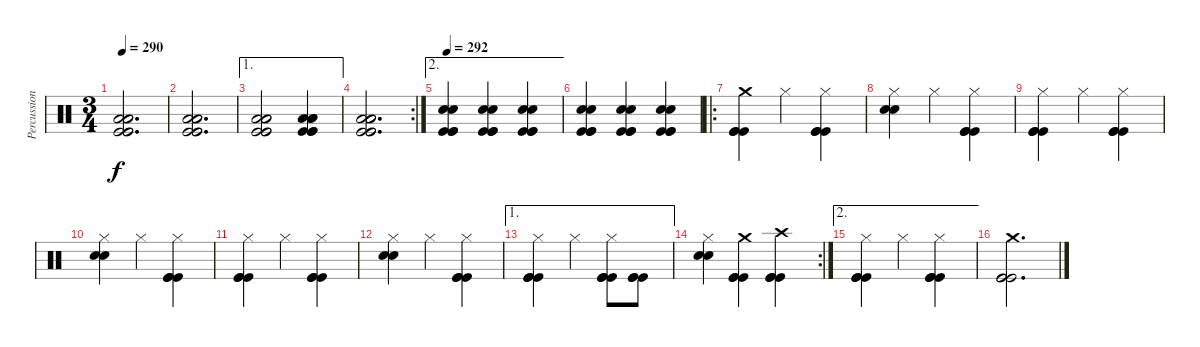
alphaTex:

\track ("Percussion" "Percussion") {instrument percussion}
\staff {score}
\articulation defaults
\ts (3 4)
\tempo 290
\clef neutral
\ks c
("Low Floor Tom (hit)" "Low Floor Tom (hit)" "Low Floor Tom (hit)" "Kick (hit)" "Kick (hit)" "Kick (hit)").2{d dy f} |
("Low Floor Tom (hit)" "Low Floor Tom (hit)" "Low Floor Tom (hit)" "Kick (hit)" "Kick (hit)" "Kick (hit)").2{d} |
\ae 1
("Low Floor Tom (hit)" "Low Floor Tom (hit)" "Low Floor Tom (hit)" "Kick (hit)" "Kick (hit)" "Kick (hit)").2 ("Low Floor Tom (hit)" "Low Floor Tom (hit)" "Low Floor Tom (hit)" "Kick (hit)" "Kick (hit)" "Kick (hit)").4 |
\rc 2
("Low Floor Tom (hit)" "Low Floor Tom (hit)" "Low Floor Tom (hit)" "Kick (hit)" "Kick (hit)" "Kick (hit)").2{d} |
\ae 2
\tempo 292
("Electric Snare (hit)" "Snare (hit) 2" "Kick (hit)" "Kick (hit)" "Kick (hit)").4 ("Electric Snare (hit)" "Snare (hit) 2" "Kick (hit)" "Kick (hit)" "Kick (hit)").4 ("Electric Snare (hit)" "Snare (hit) 2" "Kick (hit)" "Kick (hit)" "Kick (hit)").4 |
("Electric Snare (hit)" "Snare (hit) 2" "Kick (hit)" "Kick (hit)" "Kick (hit)").4 ("Electric Snare (hit)" "Snare (hit) 2" "Kick (hit)" "Kick (hit)" "Kick (hit)").4 ("Electric Snare (hit)" "Snare (hit) 2" "Kick (hit)" "Kick (hit)" "Kick (hit)").4 |
\ro
("Crash medium (hit)" "Kick (hit)" "Kick (hit)" "Kick (hit)").4 "Hi-Hat (closed)".4 ("Hi-Hat (closed)" "Kick (hit)" "Kick (hit)" "Kick (hit)").4 |
("Hi-Hat (closed)" "Electric Snare (hit)" "Snare (hit) 2").4 "Hi-Hat (closed)".4 ("Hi-Hat (closed)" "Kick (hit)" "Kick (hit)" "Kick (hit)").4 |
("Hi-Hat (closed)" "Kick (hit)" "Kick (hit)" "Kick (hit)").4 "Hi-Hat (closed)".4 ("Hi-Hat (closed)" "Kick (hit)" "Kick (hit)" "Kick (hit)").4 |
("Hi-Hat (closed)" "Electric Snare (hit)" "Snare (hit) 2").4 "Hi-Hat (closed)".4 ("Hi-Hat (closed)" "Kick (hit)" "Kick (hit)" "Kick (hit)").4 |
("Hi-Hat (closed)" "Kick (hit)" "Kick (hit)" "Kick (hit)").4 "Hi-Hat (closed)".4 ("Hi-Hat (closed)" "Kick (hit)" "Kick (hit)" "Kick (hit)").4 |
("Hi-Hat (closed)" "Electric Snare (hit)" "Snare (hit) 2").4 "Hi-Hat (closed)".4 ("Hi-Hat (closed)" "Kick (hit)" "Kick (hit)" "Kick (hit)").4 |
\ae 1
("Hi-Hat (closed)" "Kick (hit)" "Kick (hit)" "Kick (hit)").4 "Hi-Hat (closed)".4 ("Hi-Hat (closed)" "Kick (hit)" "Kick (hit)" "Kick (hit)").8 ("Kick (hit)" "Kick (hit)" "Kick (hit)").8 |
\rc 2
("Hi-Hat (closed)" "Snare (hit) 2" "Electric Snare (hit)").4 ("Crash medium (hit)" "Kick (hit)" "Kick (hit)" "Kick (hit)").4 ("Crash high (hit)" "Kick (hit)" "Kick (hit)" "Kick (hit)").4 |
\ae 2
("Hi-Hat (closed)" "Kick (hit)" "Kick (hit)" "Kick (hit)").4 "Hi-Hat (closed)".4 ("Hi-Hat (closed)" "Kick (hit)" "Kick (hit)" "Kick (hit)").4 |
("Crash medium (hit)" "Kick (hit)" "Kick (hit)" "Kick (hit)").2{d}
